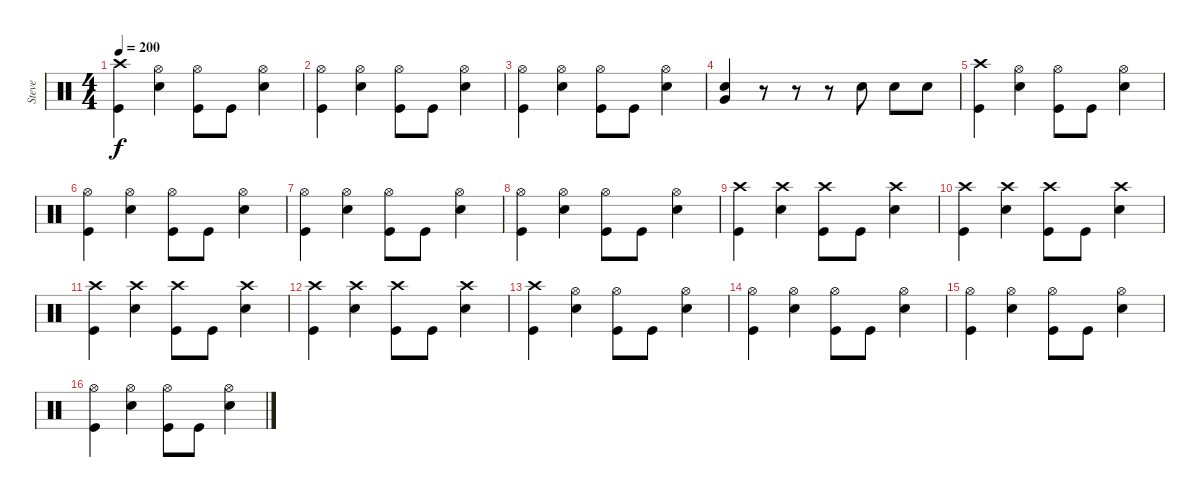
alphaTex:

\track ("Steve" "Steve") {instrument percussion}
\staff {score}
\articulation defaults
\ts (4 4)
\tempo 200
\clef neutral
\ks c
("Crash high (hit)" "Kick (hit)").4{dy f} ("Hi-Hat (open)" "Snare (hit) 2").4 ("Hi-Hat (open)" "Kick (hit)").8 "Kick (hit)".8 ("Hi-Hat (open)" "Snare (hit) 2").4 |
("Hi-Hat (open)" "Kick (hit)").4 ("Hi-Hat (open)" "Snare (hit) 2").4 ("Hi-Hat (open)" "Kick (hit)").8 "Kick (hit)".8 ("Hi-Hat (open)" "Snare (hit) 2").4 |
("Hi-Hat (open)" "Kick (hit)").4 ("Hi-Hat (open)" "Snare (hit) 2").4 ("Hi-Hat (open)" "Kick (hit)").8 "Kick (hit)".8 ("Hi-Hat (open)" "Snare (hit) 2").4 |
("Very Low Tom (hit)" "Snare (hit) 2").4 r.8 r.8 r.8 "Snare (hit) 2".8 "Snare (hit) 2".8 "Snare (hit) 2".8 |
("Crash high (hit)" "Kick (hit)").4 ("Hi-Hat (open)" "Snare (hit) 2").4 ("Hi-Hat (open)" "Kick (hit)").8 "Kick (hit)".8 ("Hi-Hat (open)" "Snare (hit) 2").4 |
("Hi-Hat (open)" "Kick (hit)").4 ("Hi-Hat (open)" "Snare (hit) 2").4 ("Hi-Hat (open)" "Kick (hit)").8 "Kick (hit)".8 ("Hi-Hat (open)" "Snare (hit) 2").4 |
("Hi-Hat (open)" "Kick (hit)").4 ("Hi-Hat (open)" "Snare (hit) 2").4 ("Hi-Hat (open)" "Kick (hit)").8 "Kick (hit)".8 ("Hi-Hat (open)" "Snare (hit) 2").4 |
("Hi-Hat (open)" "Kick (hit)").4 ("Hi-Hat (open)" "Snare (hit) 2").4 ("Hi-Hat (open)" "Kick (hit)").8 "Kick (hit)".8 ("Hi-Hat (open)" "Snare (hit) 2").4 |
("Crash high (hit)" "Kick (hit)").4 ("Crash high (hit)" "Snare (hit) 2").4 ("Crash high (hit)" "Kick (hit)").8 "Kick (hit)".8 ("Crash high (hit)" "Snare (hit) 2").4 |
("Crash high (hit)" "Kick (hit)").4 ("Crash high (hit)" "Snare (hit) 2").4 ("Crash high (hit)" "Kick (hit)").8 "Kick (hit)".8 ("Crash high (hit)" "Snare (hit) 2").4 |
("Crash high (hit)" "Kick (hit)").4 ("Crash high (hit)" "Snare (hit) 2").4 ("Crash high (hit)" "Kick (hit)").8 "Kick (hit)".8 ("Crash high (hit)" "Snare (hit) 2").4 |
("Crash high (hit)" "Kick (hit)").4 ("Crash high (hit)" "Snare (hit) 2").4 ("Crash high (hit)" "Kick (hit)").8 "Kick (hit)".8 ("Crash high (hit)" "Snare (hit) 2").4 |
("Crash high (hit)" "Kick (hit)").4 ("Hi-Hat (open)" "Snare (hit) 2").4 ("Hi-Hat (open)" "Kick (hit)").8 "Kick (hit)".8 ("Hi-Hat (open)" "Snare (hit) 2").4 |
("Hi-Hat (open)" "Kick (hit)").4 ("Hi-Hat (open)" "Snare (hit) 2").4 ("Hi-Hat (open)" "Kick (hit)").8 "Kick (hit)".8 ("Hi-Hat (open)" "Snare (hit) 2").4 |
("Hi-Hat (open)" "Kick (hit)").4 ("Hi-Hat (open)" "Snare (hit) 2").4 ("Hi-Hat (open)" "Kick (hit)").8 "Kick (hit)".8 ("Hi-Hat (open)" "Snare (hit) 2").4 |
("Hi-Hat (open)" "Kick (hit)").4 ("Hi-Hat (open)" "Snare (hit) 2").4 ("Hi-Hat (open)" "Kick (hit)").8 "Kick (hit)".8 ("Hi-Hat (open)" "Snare (hit) 2").4
